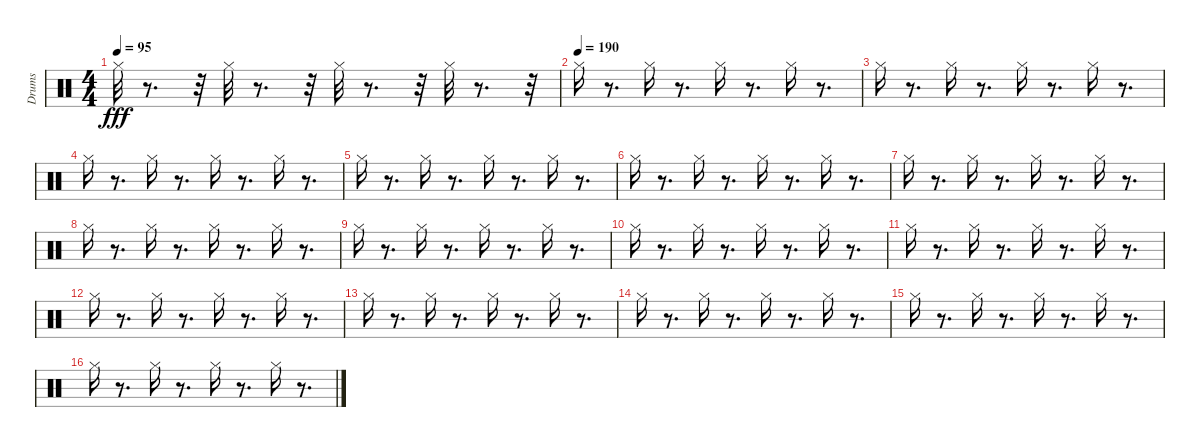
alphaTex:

\track ("Drums" "Drums") {instrument percussion}
\staff {score}
\articulation defaults
\ts (4 4)
\tempo 95
\clef neutral
\ks c "Hi-Hat (closed)".32{dy fff}
r.8{d} r.32 "Hi-Hat (closed)".32 r.8{d} r.32 "Hi-Hat (closed)".32 r.8{d} r.32 "Hi-Hat (closed)".32 r.8{d} r.32 |
\tempo (190)
"Hi-Hat (closed)".16 r.8{d} "Hi-Hat (closed)".16 r.8{d} "Hi-Hat (closed)".16 r.8{d} "Hi-Hat (closed)".16 r.8{d} |
"Hi-Hat (closed)".16 r.8{d} "Hi-Hat (closed)".16 r.8{d} "Hi-Hat (closed)".16 r.8{d} "Hi-Hat (closed)".16 r.8{d} |
"Hi-Hat (closed)".16 r.8{d} "Hi-Hat (closed)".16 r.8{d} "Hi-Hat (closed)".16 r.8{d} "Hi-Hat (closed)".16 r.8{d} |
"Hi-Hat (closed)".16 r.8{d} "Hi-Hat (closed)".16 r.8{d} "Hi-Hat (closed)".16 r.8{d} "Hi-Hat (closed)".16 r.8{d} |
"Hi-Hat (closed)".16 r.8{d} "Hi-Hat (closed)".16 r.8{d} "Hi-Hat (closed)".16 r.8{d} "Hi-Hat (closed)".16 r.8{d} |
"Hi-Hat (closed)".16 r.8{d} "Hi-Hat (closed)".16 r.8{d} "Hi-Hat (closed)".16 r.8{d} "Hi-Hat (closed)".16 r.8{d} |
"Hi-Hat (closed)".16 r.8{d} "Hi-Hat (closed)".16 r.8{d} "Hi-Hat (closed)".16 r.8{d} "Hi-Hat (closed)".16 r.8{d} |
"Hi-Hat (closed)".16 r.8{d} "Hi-Hat (closed)".16 r.8{d} "Hi-Hat (closed)".16 r.8{d} "Hi-Hat (closed)".16 r.8{d} |
"Hi-Hat (closed)".16 r.8{d} "Hi-Hat (closed)".16 r.8{d} "Hi-Hat (closed)".16 r.8{d} "Hi-Hat (closed)".16 r.8{d} |
"Hi-Hat (closed)".16 r.8{d} "Hi-Hat (closed)".16 r.8{d} "Hi-Hat (closed)".16 r.8{d} "Hi-Hat (closed)".16 r.8{d} |
"Hi-Hat (closed)".16 r.8{d} "Hi-Hat (closed)".16 r.8{d} "Hi-Hat (closed)".16 r.8{d} "Hi-Hat (closed)".16 r.8{d} |
"Hi-Hat (closed)".16 r.8{d} "Hi-Hat (closed)".16 r.8{d} "Hi-Hat (closed)".16 r.8{d} "Hi-Hat (closed)".16 r.8{d} |
"Hi-Hat (closed)".16 r.8{d} "Hi-Hat (closed)".16 r.8{d} "Hi-Hat (closed)".16 r.8{d} "Hi-Hat (closed)".16 r.8{d} |
"Hi-Hat (closed)".16 r.8{d} "Hi-Hat (closed)".16 r.8{d} "Hi-Hat (closed)".16 r.8{d} "Hi-Hat (closed)".16 r.8{d} |
"Hi-Hat (closed)".16 r.8{d} "Hi-Hat (closed)".16 r.8{d} "Hi-Hat (closed)".16 r.8{d} "Hi-Hat (closed)".16 r.8{d}
